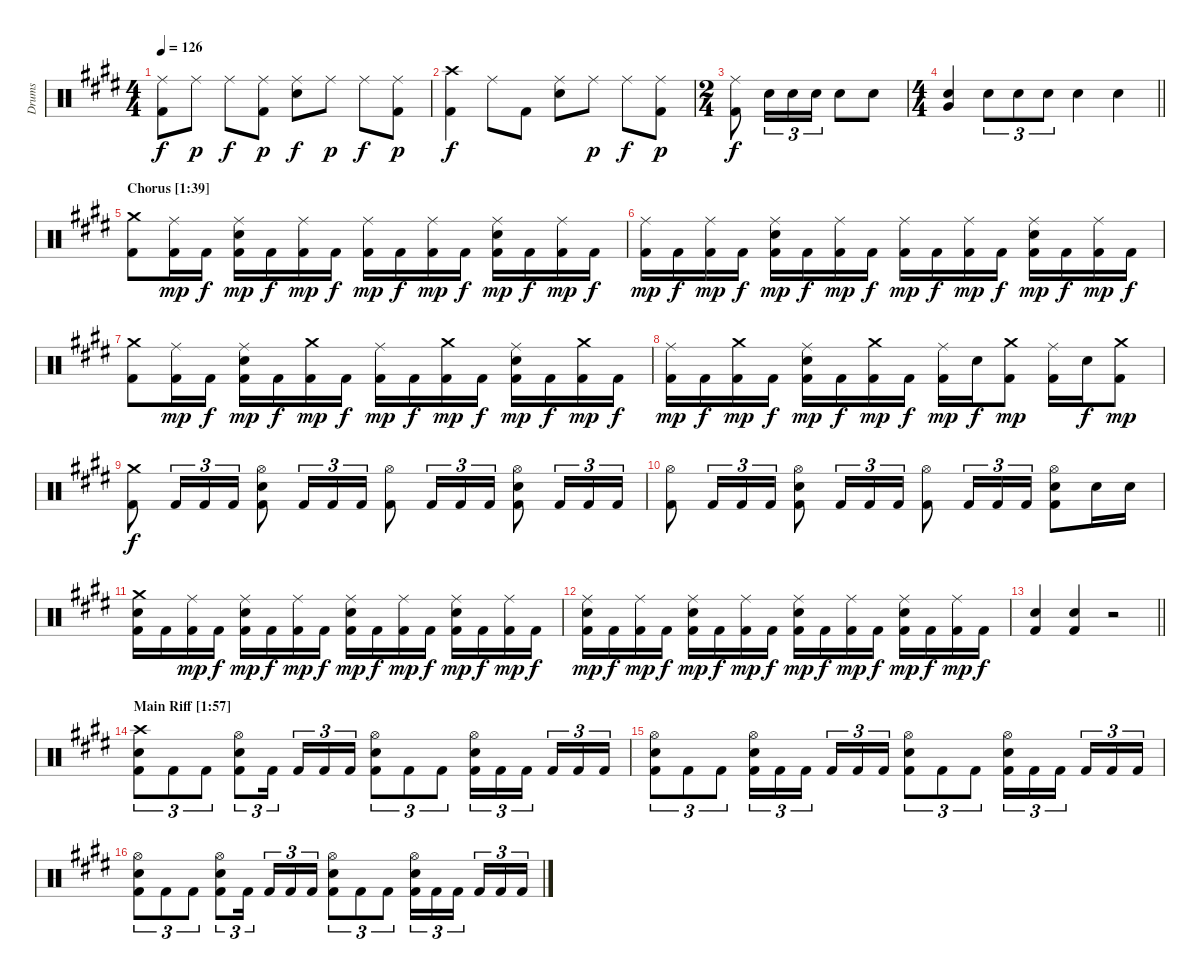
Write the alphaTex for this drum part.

\track ("Drums" "Drums") {instrument percussion}
\staff {score}
\articulation defaults
\ts (4 4)
\tempo 126
\clef neutral
\ks c#minor
("Ride (middle)" "Kick (hit) 2").8{dy f} "Ride (middle)".8{dy p} "Ride (middle)".8{dy f} ("Ride (middle)" "Kick (hit) 2").8{dy p} ("Ride (middle)" "Snare (hit) 2").8{dy f} "Ride (middle)".8{dy p} "Ride (middle)".8{dy f} ("Ride (middle)" "Kick (hit) 2").8{dy p} |
("Crash high (hit)" "Kick (hit) 2").4{dy f} "Ride (middle)".8 "Kick (hit) 2".8 ("Ride (middle)" "Snare (hit) 2").8 "Ride (middle)".8{dy p} "Ride (middle)".8{dy f} ("Ride (middle)" "Kick (hit) 2").8{dy p} |
\ts (2 4)
("Ride (middle)" "Kick (hit) 2").8{dy f} "Snare (hit) 2".16{tu (3 2)} "Snare (hit) 2".16{tu (3 2)} "Snare (hit) 2".16{tu (3 2)} "Snare (hit) 2".8 "Snare (hit) 2".8 |
\ts (4 4)
\barLineRight lightlight
("Very Low Tom (hit)" "Snare (hit) 2").4 "Snare (hit) 2".8{tu (3 2)} "Snare (hit) 2".8{tu (3 2)} "Snare (hit) 2".8{tu (3 2)} "Snare (hit) 2".4 "Snare (hit) 2".4 |
\section ("" "Chorus [1:39]")
("Crash medium (hit)" "Kick (hit) 2").8 ("Ride (middle)" "Kick (hit) 2").16{dy mp} "Kick (hit) 2".16{dy f} ("Ride (middle)" "Snare (hit) 2" "Kick (hit) 2").16{dy mp} "Kick (hit) 2".16{dy f} ("Ride (middle)" "Kick (hit) 2").16{dy mp} "Kick (hit) 2".16{dy f} ("Ride (middle)" "Kick (hit) 2").16{dy mp} "Kick (hit) 2".16{dy f} ("Ride (middle)" "Kick (hit) 2").16{dy mp} "Kick (hit) 2".16{dy f} ("Ride (middle)" "Snare (hit) 2" "Kick (hit) 2").16{dy mp} "Kick (hit) 2".16{dy f} ("Ride (middle)" "Kick (hit) 2").16{dy mp} "Kick (hit) 2".16{dy f} |
("Ride (middle)" "Kick (hit) 2").16{dy mp} "Kick (hit) 2".16{dy f} ("Ride (middle)" "Kick (hit) 2").16{dy mp} "Kick (hit) 2".16{dy f} ("Ride (middle)" "Snare (hit) 2" "Kick (hit) 2").16{dy mp} "Kick (hit) 2".16{dy f} ("Ride (middle)" "Kick (hit) 2").16{dy mp} "Kick (hit) 2".16{dy f} ("Ride (middle)" "Kick (hit) 2").16{dy mp} "Kick (hit) 2".16{dy f} ("Ride (middle)" "Kick (hit) 2").16{dy mp} "Kick (hit) 2".16{dy f} ("Ride (middle)" "Snare (hit) 2" "Kick (hit) 2").16{dy mp} "Kick (hit) 2".16{dy f} ("Ride (middle)" "Kick (hit) 2").16{dy mp} "Kick (hit) 2".16{dy f} |
("Crash medium (hit)" "Kick (hit) 2").8 ("Ride (middle)" "Kick (hit) 2").16{dy mp} "Kick (hit) 2".16{dy f} ("Ride (middle)" "Snare (hit) 2" "Kick (hit) 2").16{dy mp} "Kick (hit) 2".16{dy f} ("Crash medium (hit)" "Kick (hit) 2").16{dy mp} "Kick (hit) 2".16{dy f} ("Ride (middle)" "Kick (hit) 2").16{dy mp} "Kick (hit) 2".16{dy f} ("Crash medium (hit)" "Kick (hit) 2").16{dy mp} "Kick (hit) 2".16{dy f} ("Ride (middle)" "Snare (hit) 2" "Kick (hit) 2").16{dy mp} "Kick (hit) 2".16{dy f} ("Crash medium (hit)" "Kick (hit) 2").16{dy mp} "Kick (hit) 2".16{dy f} |
("Ride (middle)" "Kick (hit) 2").16{dy mp} "Kick (hit) 2".16{dy f} ("Crash medium (hit)" "Kick (hit) 2").16{dy mp} "Kick (hit) 2".16{dy f} ("Ride (middle)" "Snare (hit) 2" "Kick (hit) 2").16{dy mp} "Kick (hit) 2".16{dy f} ("Crash medium (hit)" "Kick (hit) 2").16{dy mp} "Kick (hit) 2".16{dy f} ("Ride (middle)" "Kick (hit) 2").16{dy mp} "Snare (hit) 2".16{dy f} ("Crash medium (hit)" "Kick (hit) 2").8{dy mp} ("Ride (middle)" "Kick (hit) 2").16 "Snare (hit) 2".16{dy f} ("Crash medium (hit)" "Kick (hit) 2").8{dy mp} |
("Crash medium (hit)" "Kick (hit) 2").8{dy f} "Kick (hit) 2".16{tu (3 2)} "Kick (hit) 2".16{tu (3 2)} "Kick (hit) 2".16{tu (3 2)} ("Hi-Hat (open)" "Snare (hit) 2" "Kick (hit) 2").8 "Kick (hit) 2".16{tu (3 2)} "Kick (hit) 2".16{tu (3 2)} "Kick (hit) 2".16{tu (3 2)} ("Hi-Hat (open)" "Kick (hit) 2").8 "Kick (hit) 2".16{tu (3 2)} "Kick (hit) 2".16{tu (3 2)} "Kick (hit) 2".16{tu (3 2)} ("Hi-Hat (open)" "Snare (hit) 2" "Kick (hit) 2").8 "Kick (hit) 2".16{tu (3 2)} "Kick (hit) 2".16{tu (3 2)} "Kick (hit) 2".16{tu (3 2)} |
("Hi-Hat (open)" "Kick (hit) 2").8 "Kick (hit) 2".16{tu (3 2)} "Kick (hit) 2".16{tu (3 2)} "Kick (hit) 2".16{tu (3 2)} ("Hi-Hat (open)" "Snare (hit) 2" "Kick (hit) 2").8 "Kick (hit) 2".16{tu (3 2)} "Kick (hit) 2".16{tu (3 2)} "Kick (hit) 2".16{tu (3 2)} ("Hi-Hat (open)" "Kick (hit) 2").8 "Kick (hit) 2".16{tu (3 2)} "Kick (hit) 2".16{tu (3 2)} "Kick (hit) 2".16{tu (3 2)} ("Hi-Hat (open)" "Snare (hit) 2" "Kick (hit) 2").8 "Snare (hit) 2".16 "Snare (hit) 2".16 |
("Crash medium (hit)" "Snare (hit) 2" "Kick (hit) 2").16 "Kick (hit) 2".16 ("Ride (middle)" "Kick (hit) 2").16{dy mp} "Kick (hit) 2".16{dy f} ("Ride (middle)" "Snare (hit) 2" "Kick (hit) 2").16{dy mp} "Kick (hit) 2".16{dy f} ("Ride (middle)" "Kick (hit) 2").16{dy mp} "Kick (hit) 2".16{dy f} ("Ride (middle)" "Snare (hit) 2" "Kick (hit) 2").16{dy mp} "Kick (hit) 2".16{dy f} ("Ride (middle)" "Kick (hit) 2").16{dy mp} "Kick (hit) 2".16{dy f} ("Ride (middle)" "Snare (hit) 2" "Kick (hit) 2").16{dy mp} "Kick (hit) 2".16{dy f} ("Ride (middle)" "Kick (hit) 2").16{dy mp} "Kick (hit) 2".16{dy f} |
("Ride (middle)" "Snare (hit) 2" "Kick (hit) 2").16{dy mp} "Kick (hit) 2".16{dy f} ("Ride (middle)" "Kick (hit) 2").16{dy mp} "Kick (hit) 2".16{dy f} ("Ride (middle)" "Snare (hit) 2" "Kick (hit) 2").16{dy mp} "Kick (hit) 2".16{dy f} ("Ride (middle)" "Kick (hit) 2").16{dy mp} "Kick (hit) 2".16{dy f} ("Ride (middle)" "Snare (hit) 2" "Kick (hit) 2").16{dy mp} "Kick (hit) 2".16{dy f} ("Ride (middle)" "Kick (hit) 2").16{dy mp} "Kick (hit) 2".16{dy f} ("Ride (middle)" "Snare (hit) 2" "Kick (hit) 2").16{dy mp} "Kick (hit) 2".16{dy f} ("Ride (middle)" "Kick (hit) 2").16{dy mp} "Kick (hit) 2".16{dy f} |
\barLineRight lightlight
("Snare (hit) 2" "Kick (hit) 2").4 ("Snare (hit) 2" "Kick (hit) 2").4 r.2 |
\section ("" "Main Riff [1:57]")
("Crash high (hit)" "Snare (hit) 2" "Kick (hit) 2").8{tu (3 2)} "Kick (hit) 2".8{tu (3 2)} "Kick (hit) 2".8{tu (3 2)} ("Hi-Hat (open)" "Snare (hit) 2" "Kick (hit) 2").8{tu (3 2)} "Kick (hit) 2".16{tu (3 2) beam splitsecondary} "Kick (hit) 2".16{tu (3 2)} "Kick (hit) 2".16{tu (3 2)} "Kick (hit) 2".16{tu (3 2)} ("Hi-Hat (open)" "Snare (hit) 2" "Kick (hit) 2").8{tu (3 2)} "Kick (hit) 2".8{tu (3 2)} "Kick (hit) 2".8{tu (3 2)} ("Hi-Hat (open)" "Snare (hit) 2" "Kick (hit) 2").16{tu (3 2)} "Kick (hit) 2".16{tu (3 2)} "Kick (hit) 2".16{tu (3 2) beam splitsecondary} "Kick (hit) 2".16{tu (3 2)} "Kick (hit) 2".16{tu (3 2)} "Kick (hit) 2".16{tu (3 2)} |
("Hi-Hat (open)" "Snare (hit) 2" "Kick (hit) 2").8{tu (3 2)} "Kick (hit) 2".8{tu (3 2)} "Kick (hit) 2".8{tu (3 2)} ("Hi-Hat (open)" "Snare (hit) 2" "Kick (hit) 2").16{tu (3 2)} "Kick (hit) 2".16{tu (3 2)} "Kick (hit) 2".16{tu (3 2) beam splitsecondary} "Kick (hit) 2".16{tu (3 2)} "Kick (hit) 2".16{tu (3 2)} "Kick (hit) 2".16{tu (3 2)} ("Hi-Hat (open)" "Snare (hit) 2" "Kick (hit) 2").8{tu (3 2)} "Kick (hit) 2".8{tu (3 2)} "Kick (hit) 2".8{tu (3 2)} ("Hi-Hat (open)" "Snare (hit) 2" "Kick (hit) 2").16{tu (3 2)} "Kick (hit) 2".16{tu (3 2)} "Kick (hit) 2".16{tu (3 2) beam splitsecondary} "Kick (hit) 2".16{tu (3 2)} "Kick (hit) 2".16{tu (3 2)} "Kick (hit) 2".16{tu (3 2)} |
("Hi-Hat (open)" "Snare (hit) 2" "Kick (hit) 2").8{tu (3 2)} "Kick (hit) 2".8{tu (3 2)} "Kick (hit) 2".8{tu (3 2)} ("Hi-Hat (open)" "Snare (hit) 2" "Kick (hit) 2").8{tu (3 2)} "Kick (hit) 2".16{tu (3 2) beam splitsecondary} "Kick (hit) 2".16{tu (3 2)} "Kick (hit) 2".16{tu (3 2)} "Kick (hit) 2".16{tu (3 2)} ("Hi-Hat (open)" "Snare (hit) 2" "Kick (hit) 2").8{tu (3 2)} "Kick (hit) 2".8{tu (3 2)} "Kick (hit) 2".8{tu (3 2)} ("Hi-Hat (open)" "Snare (hit) 2" "Kick (hit) 2").16{tu (3 2)} "Kick (hit) 2".16{tu (3 2)} "Kick (hit) 2".16{tu (3 2) beam splitsecondary} "Kick (hit) 2".16{tu (3 2)} "Kick (hit) 2".16{tu (3 2)} "Kick (hit) 2".16{tu (3 2)}
